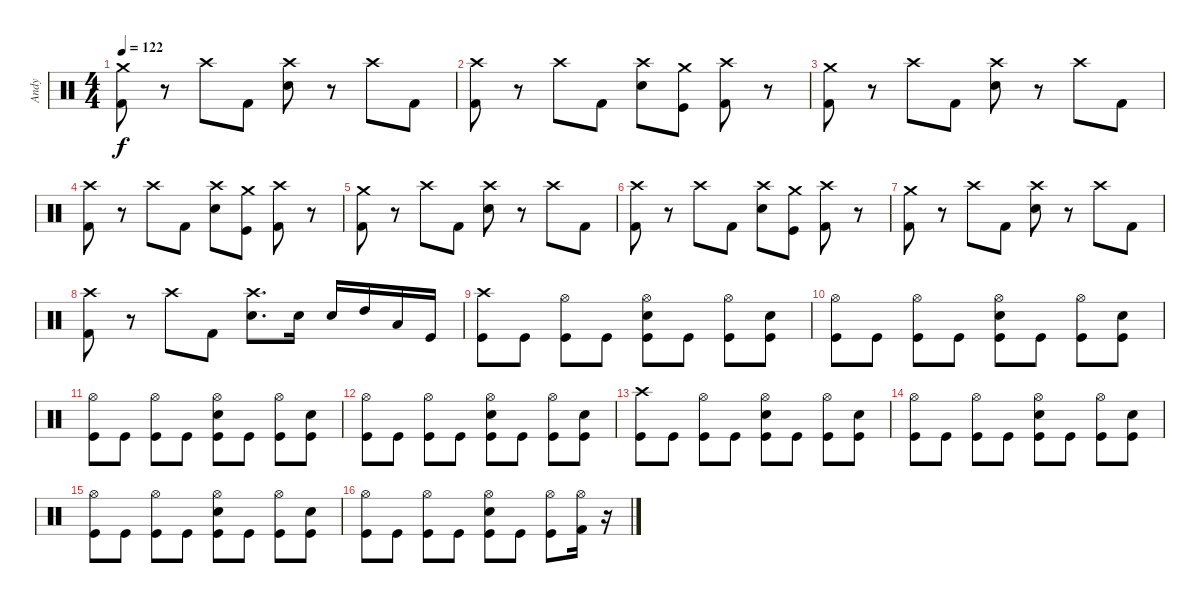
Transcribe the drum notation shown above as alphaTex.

\track ("Andy" "Andy") {instrument percussion}
\staff {score}
\articulation defaults
\ts (4 4)
\tempo 122
\clef neutral
\ks c
("Crash medium (hit)" "Kick (hit) 2").8{dy f} r.8 "Crash high (hit)".8 "Kick (hit) 2".8 ("Crash high (hit)" "Electric Snare (hit)").8 r.8 "Crash high (hit)".8 "Kick (hit) 2".8 |
("Crash high (hit)" "Kick (hit) 2").8 r.8 "Crash high (hit)".8 "Kick (hit) 2".8 ("Crash high (hit)" "Electric Snare (hit)").8 ("Kick (hit)" "Crash medium (hit)").8 ("Crash high (hit)" "Kick (hit) 2").8 r.8 |
("Crash medium (hit)" "Kick (hit) 2").8 r.8 "Crash high (hit)".8 "Kick (hit) 2".8 ("Crash high (hit)" "Electric Snare (hit)").8 r.8 "Crash high (hit)".8 "Kick (hit) 2".8 |
("Crash high (hit)" "Kick (hit) 2").8 r.8 "Crash high (hit)".8 "Kick (hit) 2".8 ("Crash high (hit)" "Electric Snare (hit)").8 ("Kick (hit)" "Crash medium (hit)").8 ("Crash high (hit)" "Kick (hit) 2").8 r.8 |
("Crash medium (hit)" "Kick (hit) 2").8 r.8 "Crash high (hit)".8 "Kick (hit) 2".8 ("Crash high (hit)" "Electric Snare (hit)").8 r.8 "Crash high (hit)".8 "Kick (hit) 2".8 |
("Crash high (hit)" "Kick (hit) 2").8 r.8 "Crash high (hit)".8 "Kick (hit) 2".8 ("Crash high (hit)" "Electric Snare (hit)").8 ("Kick (hit)" "Crash medium (hit)").8 ("Crash high (hit)" "Kick (hit) 2").8 r.8 |
("Crash medium (hit)" "Kick (hit) 2").8 r.8 "Crash high (hit)".8 "Kick (hit) 2".8 ("Crash high (hit)" "Electric Snare (hit)").8 r.8 "Crash high (hit)".8 "Kick (hit) 2".8 |
("Crash high (hit)" "Kick (hit) 2").8 r.8 "Crash high (hit)".8 "Kick (hit) 2".8 ("Crash high (hit)" "Electric Snare (hit)").8{d} "Snare (hit) 2".16 "Snare (hit) 2".16 "High Tom (hit)".16 "Low Floor Tom (hit)".16 "Kick (hit)".16 |
("Kick (hit)" "Crash high (hit)").8 "Kick (hit)".8 ("Kick (hit)" "Hi-Hat (open)").8 "Kick (hit)".8 ("Kick (hit)" "Snare (hit) 2" "Hi-Hat (open)").8 "Kick (hit)".8 ("Kick (hit)" "Hi-Hat (open)").8 ("Kick (hit)" "Snare (hit) 2").8 |
("Kick (hit)" "Hi-Hat (open)").8 "Kick (hit)".8 ("Kick (hit)" "Hi-Hat (open)").8 "Kick (hit)".8 ("Kick (hit)" "Snare (hit) 2" "Hi-Hat (open)").8 "Kick (hit)".8 ("Kick (hit)" "Hi-Hat (open)").8 ("Kick (hit)" "Snare (hit) 2").8 |
("Kick (hit)" "Hi-Hat (open)").8 "Kick (hit)".8 ("Kick (hit)" "Hi-Hat (open)").8 "Kick (hit)".8 ("Kick (hit)" "Snare (hit) 2" "Hi-Hat (open)").8 "Kick (hit)".8 ("Kick (hit)" "Hi-Hat (open)").8 ("Kick (hit)" "Snare (hit) 2").8 |
("Kick (hit)" "Hi-Hat (open)").8 "Kick (hit)".8 ("Kick (hit)" "Hi-Hat (open)").8 "Kick (hit)".8 ("Kick (hit)" "Snare (hit) 2" "Hi-Hat (open)").8 "Kick (hit)".8 ("Kick (hit)" "Hi-Hat (open)").8 ("Kick (hit)" "Snare (hit) 2").8 |
("Kick (hit)" "Crash high (hit)").8 "Kick (hit)".8 ("Kick (hit)" "Hi-Hat (open)").8 "Kick (hit)".8 ("Kick (hit)" "Snare (hit) 2" "Hi-Hat (open)").8 "Kick (hit)".8 ("Kick (hit)" "Hi-Hat (open)").8 ("Kick (hit)" "Snare (hit) 2").8 |
("Kick (hit)" "Hi-Hat (open)").8 "Kick (hit)".8 ("Kick (hit)" "Hi-Hat (open)").8 "Kick (hit)".8 ("Kick (hit)" "Snare (hit) 2" "Hi-Hat (open)").8 "Kick (hit)".8 ("Kick (hit)" "Hi-Hat (open)").8 ("Kick (hit)" "Snare (hit) 2").8 |
("Kick (hit)" "Hi-Hat (open)").8 "Kick (hit)".8 ("Kick (hit)" "Hi-Hat (open)").8 "Kick (hit)".8 ("Kick (hit)" "Snare (hit) 2" "Hi-Hat (open)").8 "Kick (hit)".8 ("Kick (hit)" "Hi-Hat (open)").8 ("Kick (hit)" "Snare (hit) 2").8 |
("Kick (hit)" "Hi-Hat (open)").8 "Kick (hit)".8 ("Kick (hit)" "Hi-Hat (open)").8 "Kick (hit)".8 ("Kick (hit)" "Snare (hit) 2" "Hi-Hat (open)").8 "Kick (hit)".8 ("Kick (hit)" "Hi-Hat (open)").8 ("Hi-Hat (open)" "Kick (hit) 2").16 r.16
